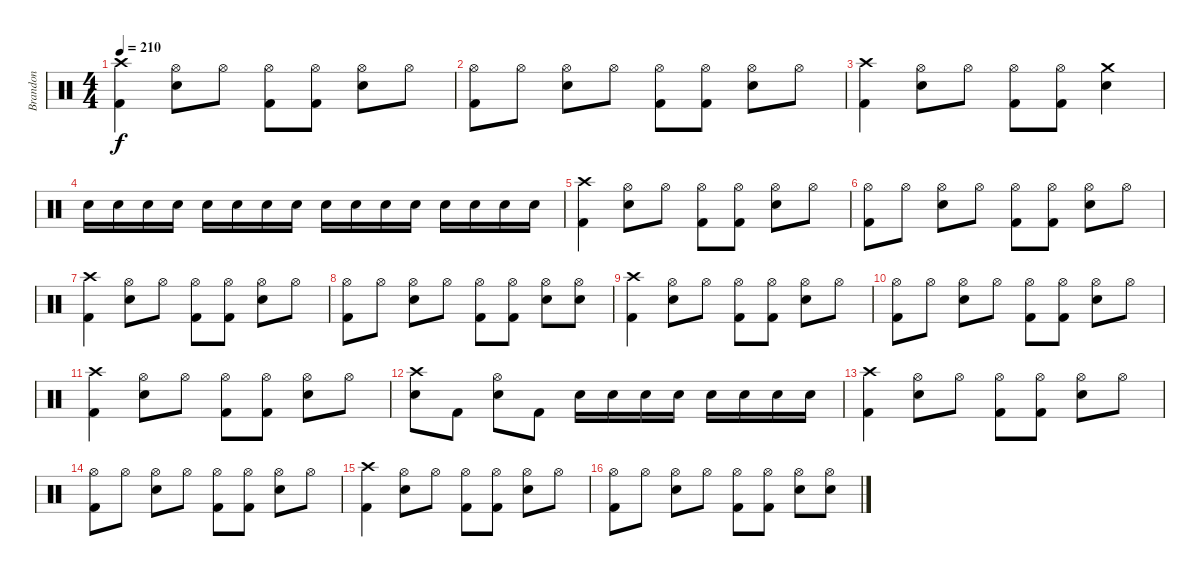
\track ("Brandon" "Brandon") {instrument percussion}
\staff {score}
\articulation defaults
\ts (4 4)
\tempo 210
\clef neutral
\ks c
("Crash high (hit)" "Kick (hit) 2").4{dy f} ("Snare (hit) 2" "Hi-Hat (open)").8 "Hi-Hat (open)".8 ("Kick (hit) 2" "Hi-Hat (open)").8 ("Kick (hit) 2" "Hi-Hat (open)").8 ("Snare (hit) 2" "Hi-Hat (open)").8 "Hi-Hat (open)".8 |
("Hi-Hat (open)" "Kick (hit) 2").8 "Hi-Hat (open)".8 ("Snare (hit) 2" "Hi-Hat (open)").8 "Hi-Hat (open)".8 ("Kick (hit) 2" "Hi-Hat (open)").8 ("Kick (hit) 2" "Hi-Hat (open)").8 ("Snare (hit) 2" "Hi-Hat (open)").8 "Hi-Hat (open)".8 |
("Crash high (hit)" "Kick (hit) 2").4 ("Snare (hit) 2" "Hi-Hat (open)").8 "Hi-Hat (open)".8 ("Kick (hit) 2" "Hi-Hat (open)").8 ("Kick (hit) 2" "Hi-Hat (open)").8 ("Snare (hit) 2" "Crash medium (hit)").4 |
"Snare (hit) 2".16 "Snare (hit) 2".16 "Snare (hit) 2".16 "Snare (hit) 2".16 "Snare (hit) 2".16 "Snare (hit) 2".16 "Snare (hit) 2".16 "Snare (hit) 2".16 "Snare (hit) 2".16 "Snare (hit) 2".16 "Snare (hit) 2".16 "Snare (hit) 2".16 "Snare (hit) 2".16 "Snare (hit) 2".16 "Snare (hit) 2".16 "Snare (hit) 2".16 |
("Crash high (hit)" "Kick (hit) 2").4 ("Snare (hit) 2" "Hi-Hat (open)").8 "Hi-Hat (open)".8 ("Kick (hit) 2" "Hi-Hat (open)").8 ("Kick (hit) 2" "Hi-Hat (open)").8 ("Snare (hit) 2" "Hi-Hat (open)").8 "Hi-Hat (open)".8 |
("Hi-Hat (open)" "Kick (hit) 2").8 "Hi-Hat (open)".8 ("Snare (hit) 2" "Hi-Hat (open)").8 "Hi-Hat (open)".8 ("Kick (hit) 2" "Hi-Hat (open)").8 ("Kick (hit) 2" "Hi-Hat (open)").8 ("Snare (hit) 2" "Hi-Hat (open)").8 "Hi-Hat (open)".8 |
("Crash high (hit)" "Kick (hit) 2").4 ("Snare (hit) 2" "Hi-Hat (open)").8 "Hi-Hat (open)".8 ("Kick (hit) 2" "Hi-Hat (open)").8 ("Kick (hit) 2" "Hi-Hat (open)").8 ("Snare (hit) 2" "Hi-Hat (open)").8 "Hi-Hat (open)".8 |
("Hi-Hat (open)" "Kick (hit) 2").8 "Hi-Hat (open)".8 ("Snare (hit) 2" "Hi-Hat (open)").8 "Hi-Hat (open)".8 ("Kick (hit) 2" "Hi-Hat (open)").8 ("Kick (hit) 2" "Hi-Hat (open)").8 ("Snare (hit) 2" "Hi-Hat (open)").8 ("Hi-Hat (open)" "Snare (hit) 2").8 |
("Crash high (hit)" "Kick (hit) 2").4 ("Snare (hit) 2" "Hi-Hat (open)").8 "Hi-Hat (open)".8 ("Kick (hit) 2" "Hi-Hat (open)").8 ("Kick (hit) 2" "Hi-Hat (open)").8 ("Snare (hit) 2" "Hi-Hat (open)").8 "Hi-Hat (open)".8 |
("Hi-Hat (open)" "Kick (hit) 2").8 "Hi-Hat (open)".8 ("Snare (hit) 2" "Hi-Hat (open)").8 "Hi-Hat (open)".8 ("Kick (hit) 2" "Hi-Hat (open)").8 ("Kick (hit) 2" "Hi-Hat (open)").8 ("Snare (hit) 2" "Hi-Hat (open)").8 "Hi-Hat (open)".8 |
("Crash high (hit)" "Kick (hit) 2").4 ("Snare (hit) 2" "Hi-Hat (open)").8 "Hi-Hat (open)".8 ("Kick (hit) 2" "Hi-Hat (open)").8 ("Kick (hit) 2" "Hi-Hat (open)").8 ("Snare (hit) 2" "Hi-Hat (open)").8 "Hi-Hat (open)".8 |
("Crash high (hit)" "Snare (hit) 2").8 "Kick (hit) 2".8 ("Snare (hit) 2" "Hi-Hat (open)").8 "Kick (hit) 2".8 "Snare (hit) 2".16 "Snare (hit) 2".16 "Snare (hit) 2".16 "Snare (hit) 2".16 "Snare (hit) 2".16 "Snare (hit) 2".16 "Snare (hit) 2".16 "Snare (hit) 2".16 |
("Crash high (hit)" "Kick (hit) 2").4 ("Snare (hit) 2" "Hi-Hat (open)").8 "Hi-Hat (open)".8 ("Kick (hit) 2" "Hi-Hat (open)").8 ("Kick (hit) 2" "Hi-Hat (open)").8 ("Snare (hit) 2" "Hi-Hat (open)").8 "Hi-Hat (open)".8 |
("Hi-Hat (open)" "Kick (hit) 2").8 "Hi-Hat (open)".8 ("Snare (hit) 2" "Hi-Hat (open)").8 "Hi-Hat (open)".8 ("Kick (hit) 2" "Hi-Hat (open)").8 ("Kick (hit) 2" "Hi-Hat (open)").8 ("Snare (hit) 2" "Hi-Hat (open)").8 "Hi-Hat (open)".8 |
("Crash high (hit)" "Kick (hit) 2").4 ("Snare (hit) 2" "Hi-Hat (open)").8 "Hi-Hat (open)".8 ("Kick (hit) 2" "Hi-Hat (open)").8 ("Kick (hit) 2" "Hi-Hat (open)").8 ("Snare (hit) 2" "Hi-Hat (open)").8 "Hi-Hat (open)".8 |
("Hi-Hat (open)" "Kick (hit) 2").8 "Hi-Hat (open)".8 ("Snare (hit) 2" "Hi-Hat (open)").8 "Hi-Hat (open)".8 ("Kick (hit) 2" "Hi-Hat (open)").8 ("Kick (hit) 2" "Hi-Hat (open)").8 ("Snare (hit) 2" "Hi-Hat (open)").8 ("Hi-Hat (open)" "Snare (hit) 2").8
